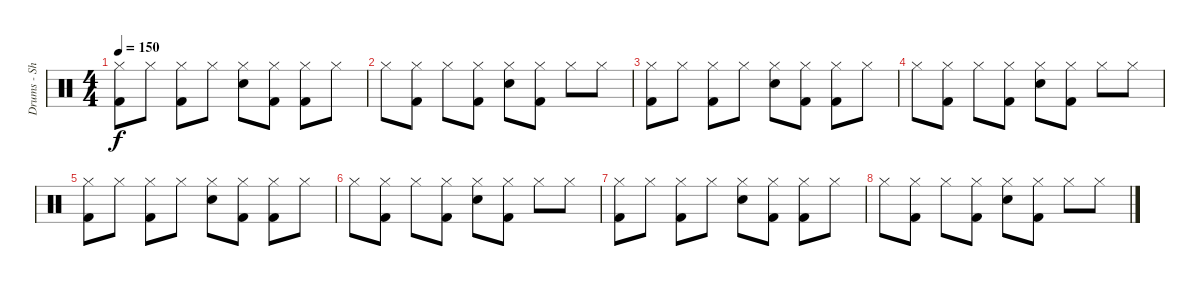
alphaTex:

\track ("Drums - Shelton" "Drums - Sh") {instrument percussion}
\staff {score}
\articulation defaults
\ts (4 4)
\tempo 150
\clef neutral
\ks c
("Hi-Hat (closed)" "Kick (hit) 2").8{dy f} "Hi-Hat (closed)".8 ("Hi-Hat (closed)" "Kick (hit) 2").8 "Hi-Hat (closed)".8 ("Hi-Hat (closed)" "Electric Snare (hit)").8 ("Hi-Hat (closed)" "Kick (hit) 2").8 ("Hi-Hat (closed)" "Kick (hit) 2").8 "Hi-Hat (closed)".8 |
"Hi-Hat (closed)".8 ("Hi-Hat (closed)" "Kick (hit) 2").8 "Hi-Hat (closed)".8 ("Hi-Hat (closed)" "Kick (hit) 2").8 ("Hi-Hat (closed)" "Electric Snare (hit)").8 ("Hi-Hat (closed)" "Kick (hit) 2").8 "Hi-Hat (closed)".8 "Hi-Hat (closed)".8 |
("Hi-Hat (closed)" "Kick (hit) 2").8 "Hi-Hat (closed)".8 ("Hi-Hat (closed)" "Kick (hit) 2").8 "Hi-Hat (closed)".8 ("Hi-Hat (closed)" "Electric Snare (hit)").8 ("Hi-Hat (closed)" "Kick (hit) 2").8 ("Hi-Hat (closed)" "Kick (hit) 2").8 "Hi-Hat (closed)".8 |
"Hi-Hat (closed)".8 ("Hi-Hat (closed)" "Kick (hit) 2").8 "Hi-Hat (closed)".8 ("Hi-Hat (closed)" "Kick (hit) 2").8 ("Hi-Hat (closed)" "Electric Snare (hit)").8 ("Hi-Hat (closed)" "Kick (hit) 2").8 "Hi-Hat (closed)".8 "Hi-Hat (closed)".8 |
("Hi-Hat (closed)" "Kick (hit) 2").8 "Hi-Hat (closed)".8 ("Hi-Hat (closed)" "Kick (hit) 2").8 "Hi-Hat (closed)".8 ("Hi-Hat (closed)" "Electric Snare (hit)").8 ("Hi-Hat (closed)" "Kick (hit) 2").8 ("Hi-Hat (closed)" "Kick (hit) 2").8 "Hi-Hat (closed)".8 |
"Hi-Hat (closed)".8 ("Hi-Hat (closed)" "Kick (hit) 2").8 "Hi-Hat (closed)".8 ("Hi-Hat (closed)" "Kick (hit) 2").8 ("Hi-Hat (closed)" "Electric Snare (hit)").8 ("Hi-Hat (closed)" "Kick (hit) 2").8 "Hi-Hat (closed)".8 "Hi-Hat (closed)".8 |
("Hi-Hat (closed)" "Kick (hit) 2").8 "Hi-Hat (closed)".8 ("Hi-Hat (closed)" "Kick (hit) 2").8 "Hi-Hat (closed)".8 ("Hi-Hat (closed)" "Electric Snare (hit)").8 ("Hi-Hat (closed)" "Kick (hit) 2").8 ("Hi-Hat (closed)" "Kick (hit) 2").8 "Hi-Hat (closed)".8 |
"Hi-Hat (closed)".8 ("Hi-Hat (closed)" "Kick (hit) 2").8 "Hi-Hat (closed)".8 ("Hi-Hat (closed)" "Kick (hit) 2").8 ("Hi-Hat (closed)" "Electric Snare (hit)").8 ("Hi-Hat (closed)" "Kick (hit) 2").8 "Hi-Hat (closed)".8 "Hi-Hat (closed)".8
